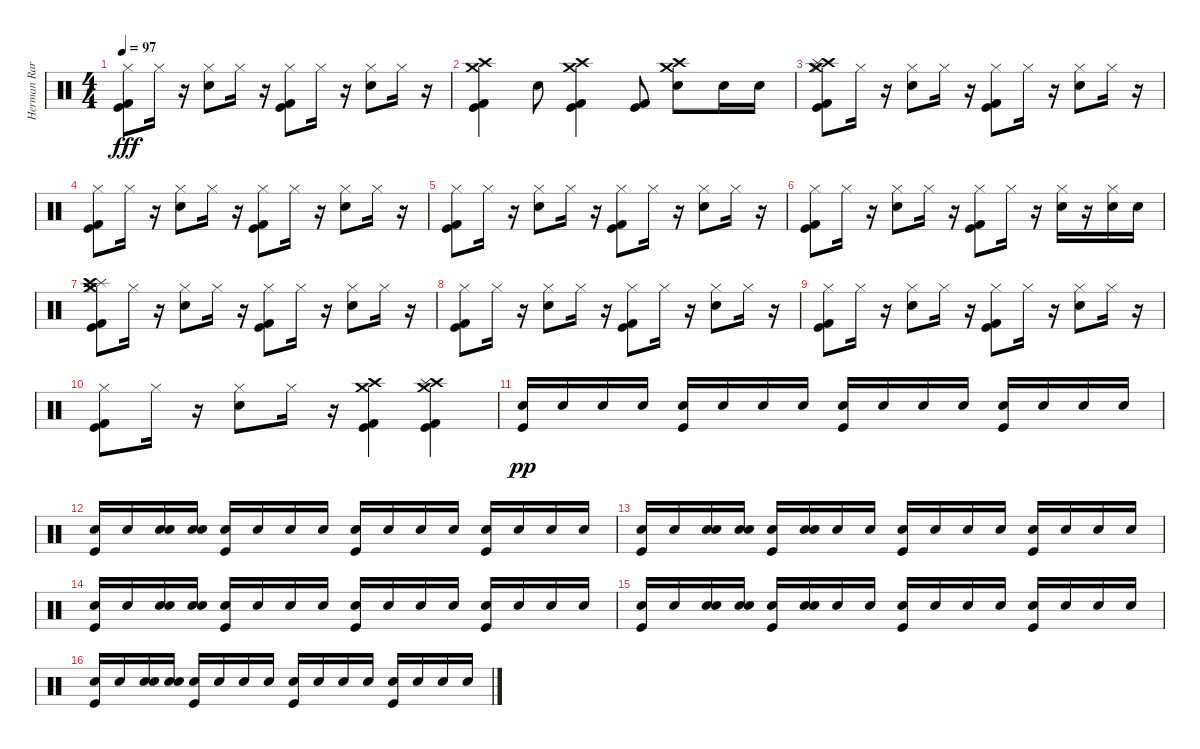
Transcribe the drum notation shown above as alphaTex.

\track ("Herman Rarebell" "Herman Rar") {instrument percussion}
\staff {score}
\articulation defaults
\ts (4 4)
\tempo 97
\clef neutral
\ks c
("Hi-Hat (closed)" "Kick (hit)" "Kick (hit) 2").8{dy fff} "Hi-Hat (closed)".16 r.16 ("Snare (hit) 2" "Hi-Hat (closed)").8 "Hi-Hat (closed)".16 r.16 ("Kick (hit) 2" "Kick (hit)" "Hi-Hat (closed)").8 "Hi-Hat (closed)".16 r.16 ("Snare (hit) 2" "Hi-Hat (closed)").8 "Hi-Hat (closed)".16 r.16 |
("Kick (hit) 2" "Kick (hit)" "Crash high (hit)" "Crash medium (hit)").4 "Snare (hit) 2".8 ("Crash medium (hit)" "Crash high (hit)" "Kick (hit)" "Kick (hit) 2").4 ("Kick (hit)" "Kick (hit) 2").8 ("Crash medium (hit)" "Crash high (hit)" "Snare (hit) 2").8 "Snare (hit) 2".16 "Snare (hit) 2".16 |
("Hi-Hat (closed)" "Crash high (hit)" "Splash (hit)" "Crash medium (hit)" "Kick (hit)" "Kick (hit) 2").8 "Hi-Hat (closed)".16 r.16 ("Snare (hit) 2" "Hi-Hat (closed)").8 "Hi-Hat (closed)".16 r.16 ("Kick (hit) 2" "Kick (hit)" "Hi-Hat (closed)").8 "Hi-Hat (closed)".16 r.16 ("Snare (hit) 2" "Hi-Hat (closed)").8 "Hi-Hat (closed)".16 r.16 |
("Hi-Hat (closed)" "Kick (hit)" "Kick (hit) 2").8 "Hi-Hat (closed)".16 r.16 ("Snare (hit) 2" "Hi-Hat (closed)").8 "Hi-Hat (closed)".16 r.16 ("Kick (hit) 2" "Kick (hit)" "Hi-Hat (closed)").8 "Hi-Hat (closed)".16 r.16 ("Snare (hit) 2" "Hi-Hat (closed)").8 "Hi-Hat (closed)".16 r.16 |
("Hi-Hat (closed)" "Kick (hit)" "Kick (hit) 2").8 "Hi-Hat (closed)".16 r.16 ("Snare (hit) 2" "Hi-Hat (closed)").8 "Hi-Hat (closed)".16 r.16 ("Kick (hit) 2" "Kick (hit)" "Hi-Hat (closed)").8 "Hi-Hat (closed)".16 r.16 ("Snare (hit) 2" "Hi-Hat (closed)").8 "Hi-Hat (closed)".16 r.16 |
("Hi-Hat (closed)" "Kick (hit)" "Kick (hit) 2").8 "Hi-Hat (closed)".16 r.16 ("Snare (hit) 2" "Hi-Hat (closed)").8 "Hi-Hat (closed)".16 r.16 ("Kick (hit) 2" "Kick (hit)" "Hi-Hat (closed)").8 "Hi-Hat (closed)".16 r.16 ("Hi-Hat (closed)" "Snare (hit) 2").16 r.16 ("Hi-Hat (closed)" "Snare (hit) 2").16 "Snare (hit) 2".16 |
("Kick (hit) 2" "Kick (hit)" "Crash medium (hit)" "Splash (hit)" "Crash high (hit)" "Hi-Hat (closed)").8 "Hi-Hat (closed)".16 r.16 ("Snare (hit) 2" "Hi-Hat (closed)").8 "Hi-Hat (closed)".16 r.16 ("Kick (hit) 2" "Kick (hit)" "Hi-Hat (closed)").8 "Hi-Hat (closed)".16 r.16 ("Snare (hit) 2" "Hi-Hat (closed)").8 "Hi-Hat (closed)".16 r.16 |
("Hi-Hat (closed)" "Kick (hit)" "Kick (hit) 2").8 "Hi-Hat (closed)".16 r.16 ("Snare (hit) 2" "Hi-Hat (closed)").8 "Hi-Hat (closed)".16 r.16 ("Kick (hit) 2" "Kick (hit)" "Hi-Hat (closed)").8 "Hi-Hat (closed)".16 r.16 ("Snare (hit) 2" "Hi-Hat (closed)").8 "Hi-Hat (closed)".16 r.16 |
("Hi-Hat (closed)" "Kick (hit)" "Kick (hit) 2").8 "Hi-Hat (closed)".16 r.16 ("Snare (hit) 2" "Hi-Hat (closed)").8 "Hi-Hat (closed)".16 r.16 ("Kick (hit) 2" "Kick (hit)" "Hi-Hat (closed)").8 "Hi-Hat (closed)".16 r.16 ("Snare (hit) 2" "Hi-Hat (closed)").8 "Hi-Hat (closed)".16 r.16 |
("Hi-Hat (closed)" "Kick (hit)" "Kick (hit) 2").8 "Hi-Hat (closed)".16 r.16 ("Hi-Hat (closed)" "Snare (hit) 2").8 "Hi-Hat (closed)".16 r.16 ("Kick (hit) 2" "Kick (hit)" "Crash high (hit)" "Crash medium (hit)").4 ("Kick (hit) 2" "Kick (hit)" "Crash high (hit)" "Crash medium (hit)" "Splash (hit)").4 |
("Kick (hit)" "Snare (hit) 2").16{dy pp} "Snare (hit) 2".16 "Snare (hit) 2".16 "Snare (hit) 2".16 ("Kick (hit)" "Snare (hit) 2").16 "Snare (hit) 2".16 "Snare (hit) 2".16 "Snare (hit) 2".16 ("Kick (hit)" "Snare (hit) 2").16 "Snare (hit) 2".16 "Snare (hit) 2".16 "Snare (hit) 2".16 ("Kick (hit)" "Snare (hit) 2").16 "Snare (hit) 2".16 "Snare (hit) 2".16 "Snare (hit) 2".16 |
("Kick (hit)" "Snare (hit) 2").16 "Snare (hit) 2".16 ("Electric Snare (hit)" "Snare (hit) 2").16 ("Electric Snare (hit)" "Snare (hit) 2").16 ("Kick (hit)" "Snare (hit) 2").16 "Snare (hit) 2".16 "Snare (hit) 2".16 "Snare (hit) 2".16 ("Kick (hit)" "Snare (hit) 2").16 "Snare (hit) 2".16 "Snare (hit) 2".16 "Snare (hit) 2".16 ("Kick (hit)" "Snare (hit) 2").16 "Snare (hit) 2".16 "Snare (hit) 2".16 "Snare (hit) 2".16 |
("Kick (hit)" "Snare (hit) 2").16 "Snare (hit) 2".16 ("Electric Snare (hit)" "Snare (hit) 2").16 ("Electric Snare (hit)" "Snare (hit) 2").16 ("Kick (hit)" "Snare (hit) 2").16 ("Electric Snare (hit)" "Snare (hit) 2").16 "Snare (hit) 2".16 "Snare (hit) 2".16 ("Kick (hit)" "Snare (hit) 2").16 "Snare (hit) 2".16 "Snare (hit) 2".16 "Snare (hit) 2".16 ("Kick (hit)" "Snare (hit) 2").16 "Snare (hit) 2".16 "Snare (hit) 2".16 "Snare (hit) 2".16 |
("Kick (hit)" "Snare (hit) 2").16 "Snare (hit) 2".16 ("Electric Snare (hit)" "Snare (hit) 2").16 ("Electric Snare (hit)" "Snare (hit) 2").16 ("Kick (hit)" "Snare (hit) 2").16 "Snare (hit) 2".16 "Snare (hit) 2".16 "Snare (hit) 2".16 ("Kick (hit)" "Snare (hit) 2").16 "Snare (hit) 2".16 "Snare (hit) 2".16 "Snare (hit) 2".16 ("Kick (hit)" "Snare (hit) 2").16 "Snare (hit) 2".16 "Snare (hit) 2".16 "Snare (hit) 2".16 |
("Kick (hit)" "Snare (hit) 2").16 "Snare (hit) 2".16 ("Electric Snare (hit)" "Snare (hit) 2").16 ("Electric Snare (hit)" "Snare (hit) 2").16 ("Kick (hit)" "Snare (hit) 2").16 ("Electric Snare (hit)" "Snare (hit) 2").16 "Snare (hit) 2".16 "Snare (hit) 2".16 ("Kick (hit)" "Snare (hit) 2").16 "Snare (hit) 2".16 "Snare (hit) 2".16 "Snare (hit) 2".16 ("Kick (hit)" "Snare (hit) 2").16 "Snare (hit) 2".16 "Snare (hit) 2".16 "Snare (hit) 2".16 |
("Kick (hit)" "Snare (hit) 2").16 "Snare (hit) 2".16 ("Electric Snare (hit)" "Snare (hit) 2").16 ("Electric Snare (hit)" "Snare (hit) 2").16 ("Kick (hit)" "Snare (hit) 2").16 "Snare (hit) 2".16 "Snare (hit) 2".16 "Snare (hit) 2".16 ("Kick (hit)" "Snare (hit) 2").16 "Snare (hit) 2".16 "Snare (hit) 2".16 "Snare (hit) 2".16 ("Kick (hit)" "Snare (hit) 2").16 "Snare (hit) 2".16 "Snare (hit) 2".16 "Snare (hit) 2".16
